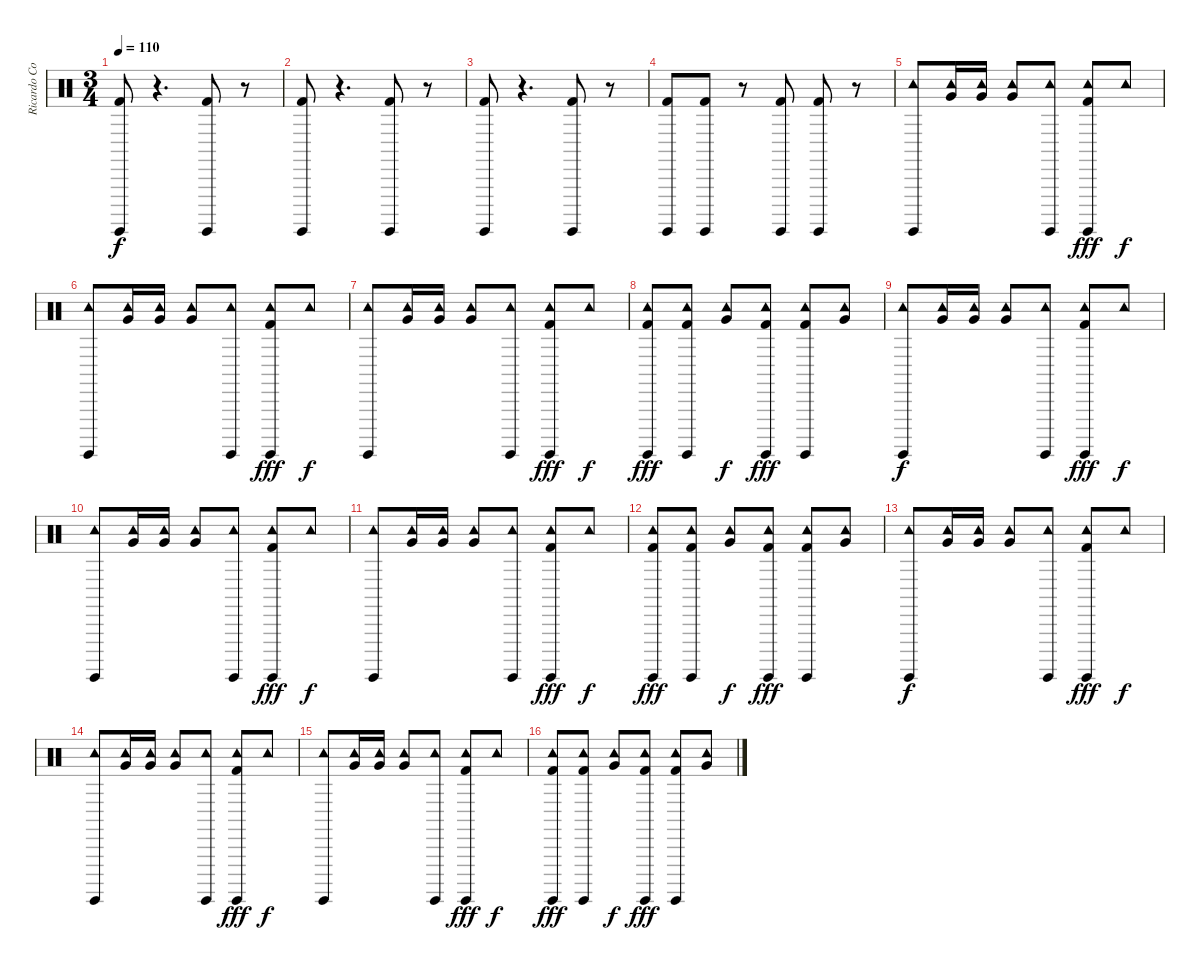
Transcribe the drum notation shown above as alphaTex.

\track ("Ricardo Confessori" "Ricardo Co") {instrument percussion}
\staff {score}
\articulation defaults
\ts (3 4)
\tempo 110
\tempo 115
\tempo 110
\clef neutral
\ks c
("Surdo (hit)" "Kick (hit) 2").8{dy f} r.4{d} ("Surdo (hit)" "Kick (hit) 2").8 r.8 |
("Surdo (hit)" "Kick (hit) 2").8 r.4{d} ("Surdo (hit)" "Kick (hit) 2").8 r.8 |
("Surdo (hit)" "Kick (hit) 2").8 r.4{d} ("Surdo (hit)" "Kick (hit) 2").8 r.8 |
("Surdo (hit)" "Kick (hit) 2").8 ("Surdo (hit)" "Kick (hit) 2").8 r.8 ("Surdo (hit)" "Kick (hit) 2").8 ("Surdo (hit)" "Kick (hit) 2").8 r.8 |
("Tambourine (hit)" "Surdo (hit)").8 ("Tambourine (hit)" "Very Low Tom (hit)").16 ("Tambourine (hit)" "Very Low Tom (hit)").16 ("Tambourine (hit)" "Very Low Tom (hit)").8 ("Tambourine (hit)" "Surdo (hit)").8 ("Tambourine (hit)" "Surdo (hit)" "Kick (hit) 2").8{dy fff} "Tambourine (hit)".8{dy f} |
("Tambourine (hit)" "Surdo (hit)").8 ("Tambourine (hit)" "Very Low Tom (hit)").16 ("Tambourine (hit)" "Very Low Tom (hit)").16 ("Tambourine (hit)" "Very Low Tom (hit)").8 ("Tambourine (hit)" "Surdo (hit)").8 ("Tambourine (hit)" "Surdo (hit)" "Kick (hit) 2").8{dy fff} "Tambourine (hit)".8{dy f} |
("Tambourine (hit)" "Surdo (hit)").8 ("Tambourine (hit)" "Very Low Tom (hit)").16 ("Tambourine (hit)" "Very Low Tom (hit)").16 ("Tambourine (hit)" "Very Low Tom (hit)").8 ("Tambourine (hit)" "Surdo (hit)").8 ("Tambourine (hit)" "Surdo (hit)" "Kick (hit) 2").8{dy fff} "Tambourine (hit)".8{dy f} |
("Tambourine (hit)" "Surdo (hit)" "Kick (hit) 2").8{dy fff} ("Tambourine (hit)" "Surdo (hit)" "Kick (hit) 2").8 ("Tambourine (hit)" "Very Low Tom (hit)").8{dy f} ("Tambourine (hit)" "Surdo (hit)" "Kick (hit) 2").8{dy fff} ("Tambourine (hit)" "Surdo (hit)" "Kick (hit) 2").8 ("Tambourine (hit)" "Very Low Tom (hit)").8 |
("Tambourine (hit)" "Surdo (hit)").8{dy f} ("Tambourine (hit)" "Very Low Tom (hit)").16 ("Tambourine (hit)" "Very Low Tom (hit)").16 ("Tambourine (hit)" "Very Low Tom (hit)").8 ("Tambourine (hit)" "Surdo (hit)").8 ("Tambourine (hit)" "Surdo (hit)" "Kick (hit) 2").8{dy fff} "Tambourine (hit)".8{dy f} |
("Tambourine (hit)" "Surdo (hit)").8 ("Tambourine (hit)" "Very Low Tom (hit)").16 ("Tambourine (hit)" "Very Low Tom (hit)").16 ("Tambourine (hit)" "Very Low Tom (hit)").8 ("Tambourine (hit)" "Surdo (hit)").8 ("Tambourine (hit)" "Surdo (hit)" "Kick (hit) 2").8{dy fff} "Tambourine (hit)".8{dy f} |
("Tambourine (hit)" "Surdo (hit)").8 ("Tambourine (hit)" "Very Low Tom (hit)").16 ("Tambourine (hit)" "Very Low Tom (hit)").16 ("Tambourine (hit)" "Very Low Tom (hit)").8 ("Tambourine (hit)" "Surdo (hit)").8 ("Tambourine (hit)" "Surdo (hit)" "Kick (hit) 2").8{dy fff} "Tambourine (hit)".8{dy f} |
("Tambourine (hit)" "Surdo (hit)" "Kick (hit) 2").8{dy fff} ("Tambourine (hit)" "Surdo (hit)" "Kick (hit) 2").8 ("Tambourine (hit)" "Very Low Tom (hit)").8{dy f} ("Tambourine (hit)" "Surdo (hit)" "Kick (hit) 2").8{dy fff} ("Tambourine (hit)" "Surdo (hit)" "Kick (hit) 2").8 ("Tambourine (hit)" "Very Low Tom (hit)").8 |
("Tambourine (hit)" "Surdo (hit)").8{dy f} ("Tambourine (hit)" "Very Low Tom (hit)").16 ("Tambourine (hit)" "Very Low Tom (hit)").16 ("Tambourine (hit)" "Very Low Tom (hit)").8 ("Tambourine (hit)" "Surdo (hit)").8 ("Tambourine (hit)" "Surdo (hit)" "Kick (hit) 2").8{dy fff} "Tambourine (hit)".8{dy f} |
("Tambourine (hit)" "Surdo (hit)").8 ("Tambourine (hit)" "Very Low Tom (hit)").16 ("Tambourine (hit)" "Very Low Tom (hit)").16 ("Tambourine (hit)" "Very Low Tom (hit)").8 ("Tambourine (hit)" "Surdo (hit)").8 ("Tambourine (hit)" "Surdo (hit)" "Kick (hit) 2").8{dy fff} "Tambourine (hit)".8{dy f} |
("Tambourine (hit)" "Surdo (hit)").8 ("Tambourine (hit)" "Very Low Tom (hit)").16 ("Tambourine (hit)" "Very Low Tom (hit)").16 ("Tambourine (hit)" "Very Low Tom (hit)").8 ("Tambourine (hit)" "Surdo (hit)").8 ("Tambourine (hit)" "Surdo (hit)" "Kick (hit) 2").8{dy fff} "Tambourine (hit)".8{dy f} |
("Tambourine (hit)" "Surdo (hit)" "Kick (hit) 2").8{dy fff} ("Tambourine (hit)" "Surdo (hit)" "Kick (hit) 2").8 ("Tambourine (hit)" "Very Low Tom (hit)").8{dy f} ("Tambourine (hit)" "Surdo (hit)" "Kick (hit) 2").8{dy fff} ("Tambourine (hit)" "Surdo (hit)" "Kick (hit) 2").8 ("Tambourine (hit)" "Very Low Tom (hit)").8
